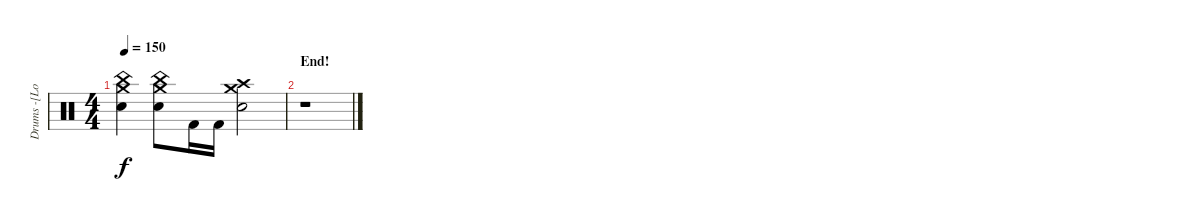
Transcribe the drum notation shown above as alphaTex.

\track ("Drums -[Lorenz]-" "Drums -[Lo") {instrument percussion}
\staff {score}
\articulation defaults
\ts (4 4)
\tempo 150
\clef neutral
\ks c
("China (hit)" "Crash medium (hit)" "Electric Snare (hit)").4{dy f} ("China (hit)" "Crash medium (hit)" "Electric Snare (hit)").8 "Kick (hit) 2".16 "Kick (hit) 2".16 ("Crash high (hit)" "Electric Snare (hit)" "Crash medium (hit)").2 |
\section ("" "End!")
r.1
